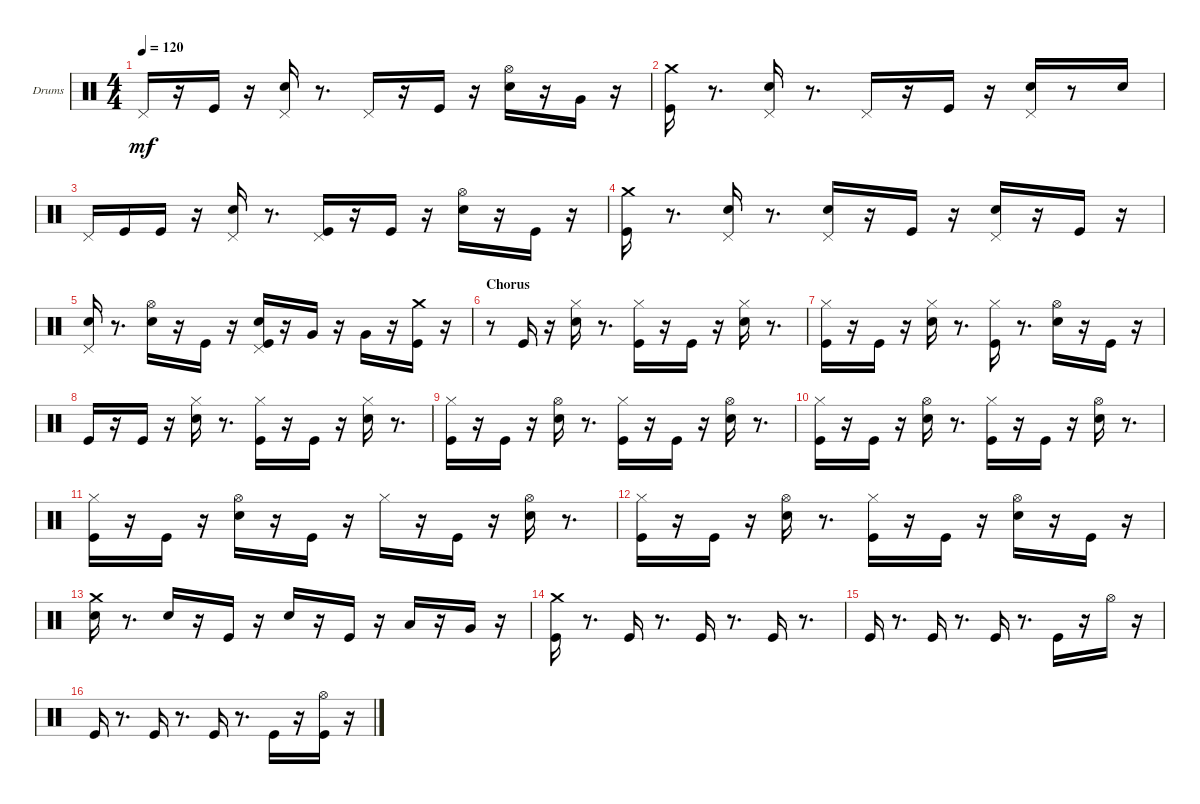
\bracketExtendMode groupsimilarinstruments
\firstSystemTrackNameOrientation horizontal
\otherSystemsTrackNameOrientation horizontal
\track ("Drumkit" "Drums") {instrument percussion}
\staff {score}
\articulation defaults
\ts (4 4)
\tempo 120
\clef neutral
\ks aminor "Pedal Hi-Hat (hit)".16{dy mf}
r.16 "Kick (hit)".16 r.16 ("Snare (hit) 2" "Pedal Hi-Hat (hit)").16 r.8{d} "Pedal Hi-Hat (hit)".16 r.16 "Kick (hit)".16 r.16 ("Snare (hit) 2" "Hi-Hat (open)").16 r.16 "Very Low Tom (hit)".16 r.16 |
("Kick (hit)" "Crash medium (hit)").16 r.8{d} ("Snare (hit) 2" "Pedal Hi-Hat (hit)").16 r.8{d} "Pedal Hi-Hat (hit)".16 r.16 "Kick (hit)".16 r.16 ("Snare (hit) 2" "Pedal Hi-Hat (hit)").16 r.8 "Snare (hit) 2".16 |
"Pedal Hi-Hat (hit)".16 "Kick (hit)".16 "Kick (hit)".16 r.16 ("Snare (hit) 2" "Pedal Hi-Hat (hit)").16 r.8{d} ("Kick (hit)" "Pedal Hi-Hat (hit)").16 r.16 "Kick (hit)".16 r.16 ("Snare (hit) 2" "Hi-Hat (open)").16 r.16 "Kick (hit)".16 r.16 |
("Kick (hit)" "Crash medium (hit)").16 r.8{d} ("Snare (hit) 2" "Pedal Hi-Hat (hit)").16 r.8{d} ("Snare (hit) 2" "Pedal Hi-Hat (hit)").16 r.16 "Kick (hit)".16 r.16 ("Snare (hit) 2" "Pedal Hi-Hat (hit)").16 r.16 "Kick (hit)".16 r.16 |
("Snare (hit) 2" "Pedal Hi-Hat (hit)").16 r.8{d} ("Snare (hit) 2" "Hi-Hat (open)").16 r.16 "Kick (hit)".16 r.16 ("Snare (hit) 2" "Kick (hit)" "Pedal Hi-Hat (hit)").16 r.16 "Very Low Tom (hit)".16 r.16 "Very Low Tom (hit)".16 r.16 ("Kick (hit)" "Crash medium (hit)").16 r.16 |
\section ("" "Chorus")
r.8 "Kick (hit)".16 r.16 ("Snare (hit) 2" "Hi-Hat (closed)").16 r.8{d} ("Kick (hit)" "Hi-Hat (closed)").16 r.16 "Kick (hit)".16 r.16 ("Snare (hit) 2" "Hi-Hat (closed)").16 r.8{d} |
("Kick (hit)" "Hi-Hat (closed)").16 r.16 "Kick (hit)".16 r.16 ("Snare (hit) 2" "Hi-Hat (closed)").16 r.8{d} ("Kick (hit)" "Hi-Hat (closed)").16 r.8{d} ("Snare (hit) 2" "Hi-Hat (open)").16 r.16 "Kick (hit)".16 r.16 |
"Kick (hit)".16 r.16 "Kick (hit)".16 r.16 ("Snare (hit) 2" "Hi-Hat (closed)").16 r.8{d} ("Kick (hit)" "Hi-Hat (closed)").16 r.16 "Kick (hit)".16 r.16 ("Snare (hit) 2" "Hi-Hat (closed)").16 r.8{d} |
("Kick (hit)" "Hi-Hat (closed)").16 r.16 "Kick (hit)".16 r.16 ("Snare (hit) 2" "Hi-Hat (open)").16 r.8{d} ("Kick (hit)" "Hi-Hat (closed)").16 r.16 "Kick (hit)".16 r.16 ("Snare (hit) 2" "Hi-Hat (open)").16 r.8{d} |
("Kick (hit)" "Hi-Hat (closed)").16 r.16 "Kick (hit)".16 r.16 ("Snare (hit) 2" "Hi-Hat (open)").16 r.8{d} ("Kick (hit)" "Hi-Hat (closed)").16 r.16 "Kick (hit)".16 r.16 ("Snare (hit) 2" "Hi-Hat (open)").16 r.8{d} |
("Kick (hit)" "Hi-Hat (closed)").16 r.16 "Kick (hit)".16 r.16 ("Snare (hit) 2" "Hi-Hat (open)").16 r.16 "Kick (hit)".16 r.16 "Hi-Hat (closed)".16 r.16 "Kick (hit)".16 r.16 ("Snare (hit) 2" "Hi-Hat (open)").16 r.8{d} |
("Kick (hit)" "Hi-Hat (closed)").16 r.16 "Kick (hit)".16 r.16 ("Snare (hit) 2" "Hi-Hat (open)").16 r.8{d} ("Kick (hit)" "Hi-Hat (closed)").16 r.16 "Kick (hit)".16 r.16 ("Snare (hit) 2" "Hi-Hat (open)").16 r.16 "Kick (hit)".16 r.16 |
("Snare (hit) 2" "Crash medium (hit)").16 r.8{d} "Snare (hit) 2".16 r.16 "Kick (hit)".16 r.16 "Snare (hit) 2".16 r.16 "Kick (hit)".16 r.16 "Low Tom (hit)".16 r.16 "Very Low Tom (hit)".16 r.16 |
("Kick (hit)" "Crash medium (hit)").16 r.8{d} "Kick (hit)".16 r.8{d} "Kick (hit)".16 r.8{d} "Kick (hit)".16 r.8{d} |
"Kick (hit)".16 r.8{d} "Kick (hit)".16 r.8{d} "Kick (hit)".16 r.8{d} "Kick (hit)".16 r.16 "Hi-Hat (open)".16 r.16 |
"Kick (hit)".16 r.8{d} "Kick (hit)".16 r.8{d} "Kick (hit)".16 r.8{d} "Kick (hit)".16 r.16 ("Kick (hit)" "Hi-Hat (open)").16 r.16
